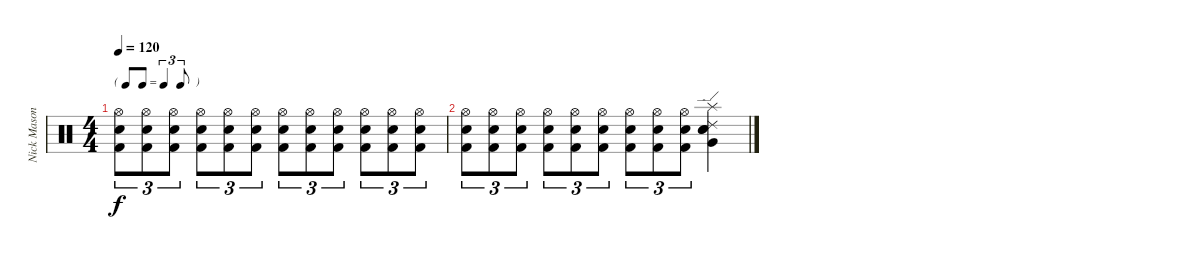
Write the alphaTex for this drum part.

\track ("Nick Mason" "Nick Mason") {instrument percussion}
\staff {score}
\articulation defaults
\ts (4 4)
\tf triplet8th
\tempo 120
\clef neutral
\ks c
("Hi-Hat (open)" "Snare (hit) 2" "Kick (hit) 2").8{tu (3 2) dy f} ("Hi-Hat (open)" "Snare (hit) 2" "Kick (hit) 2").8{tu (3 2)} ("Hi-Hat (open)" "Snare (hit) 2" "Kick (hit) 2").8{tu (3 2)} ("Hi-Hat (open)" "Snare (hit) 2" "Kick (hit) 2").8{tu (3 2)} ("Hi-Hat (open)" "Snare (hit) 2" "Kick (hit) 2").8{tu (3 2)} ("Hi-Hat (open)" "Snare (hit) 2" "Kick (hit) 2").8{tu (3 2)} ("Hi-Hat (open)" "Snare (hit) 2" "Kick (hit) 2").8{tu (3 2)} ("Hi-Hat (open)" "Snare (hit) 2" "Kick (hit) 2").8{tu (3 2)} ("Hi-Hat (open)" "Snare (hit) 2" "Kick (hit) 2").8{tu (3 2)} ("Hi-Hat (open)" "Snare (hit) 2" "Kick (hit) 2").8{tu (3 2)} ("Hi-Hat (open)" "Snare (hit) 2" "Kick (hit) 2").8{tu (3 2)} ("Hi-Hat (open)" "Snare (hit) 2" "Kick (hit) 2").8{tu (3 2)} |
("Hi-Hat (open)" "Snare (hit) 2" "Kick (hit) 2").8{tu (3 2)} ("Hi-Hat (open)" "Snare (hit) 2" "Kick (hit) 2").8{tu (3 2)} ("Hi-Hat (open)" "Snare (hit) 2" "Kick (hit) 2").8{tu (3 2)} ("Hi-Hat (open)" "Snare (hit) 2" "Kick (hit) 2").8{tu (3 2)} ("Hi-Hat (open)" "Snare (hit) 2" "Kick (hit) 2").8{tu (3 2)} ("Hi-Hat (open)" "Snare (hit) 2" "Kick (hit) 2").8{tu (3 2)} ("Hi-Hat (open)" "Snare (hit) 2" "Kick (hit) 2").8{tu (3 2)} ("Hi-Hat (open)" "Snare (hit) 2" "Kick (hit) 2").8{tu (3 2)} ("Hi-Hat (open)" "Snare (hit) 2" "Kick (hit) 2").8{tu (3 2)} ("Ride (edge) 2" "Very Low Tom (hit)" "Electric Snare (hit)" "Snare (hit) 2" "Splash (hit)").4
